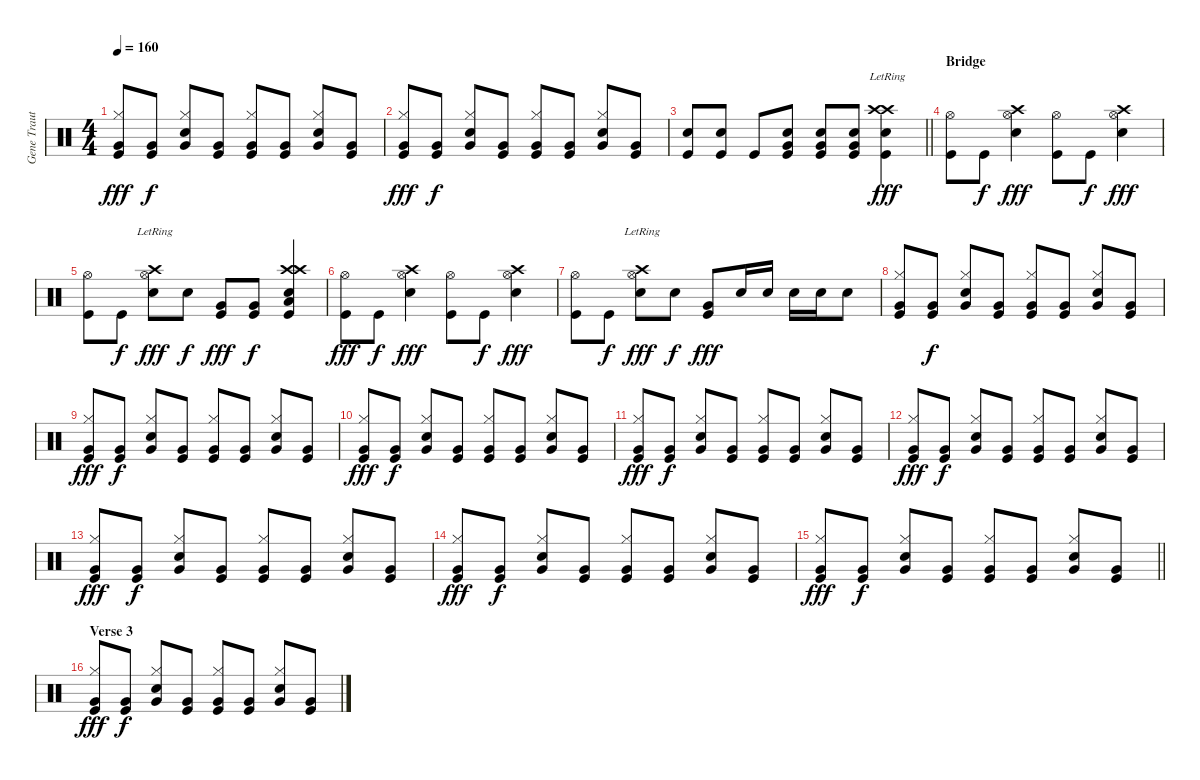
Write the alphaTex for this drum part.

\track ("Gene Trautmann" "Gene Traut") {instrument percussion}
\staff {score}
\articulation defaults
\ts (4 4)
\tempo 160
\clef neutral
\ks c
("Very Low Tom (hit)" "Hi-Hat (closed)" "Kick (hit)").8{dy fff} ("Very Low Tom (hit)" "Kick (hit)").8{dy f} ("Very Low Tom (hit)" "Hi-Hat (closed)" "Snare (hit) 2").8 ("Very Low Tom (hit)" "Kick (hit)").8 ("Very Low Tom (hit)" "Hi-Hat (closed)" "Kick (hit)").8 ("Very Low Tom (hit)" "Kick (hit)").8 ("Very Low Tom (hit)" "Hi-Hat (closed)" "Snare (hit) 2").8 ("Very Low Tom (hit)" "Kick (hit)").8 |
("Very Low Tom (hit)" "Hi-Hat (closed)" "Kick (hit)").8{dy fff} ("Very Low Tom (hit)" "Kick (hit)").8{dy f} ("Very Low Tom (hit)" "Hi-Hat (closed)" "Snare (hit) 2").8 ("Very Low Tom (hit)" "Kick (hit)").8 ("Very Low Tom (hit)" "Hi-Hat (closed)" "Kick (hit)").8 ("Very Low Tom (hit)" "Kick (hit)").8 ("Very Low Tom (hit)" "Hi-Hat (closed)" "Snare (hit) 2").8 ("Very Low Tom (hit)" "Kick (hit)").8 |
\barLineRight lightlight
("Snare (hit) 2" "Kick (hit)").8 ("Snare (hit) 2" "Kick (hit)").8 "Kick (hit)".8 ("Very Low Tom (hit)" "Snare (hit) 2" "Kick (hit)").8 ("Very Low Tom (hit)" "Snare (hit) 2" "Kick (hit)").8 ("Very Low Tom (hit)" "Snare (hit) 2" "Kick (hit)").8 ("Crash high (hit)"{lr} "Crash high (hit)"{lr} "Snare (hit) 2" "Kick (hit)").4{dy fff} |
\section ("" "Bridge")
("Hi-Hat (open)" "Kick (hit)").8 "Kick (hit)".8{dy f} ("Crash high (hit)" "Hi-Hat (open)" "Snare (hit) 2").4{dy fff} ("Hi-Hat (open)" "Kick (hit)").8 "Kick (hit)".8{dy f} ("Crash high (hit)" "Hi-Hat (open)" "Snare (hit) 2").4{dy fff} |
("Hi-Hat (open)" "Kick (hit)").8 "Kick (hit)".8{dy f} ("Crash high (hit)" "Hi-Hat (open)"{lr} "Snare (hit) 2").8{dy fff} "Snare (hit) 2".8{dy f} ("Very Low Tom (hit)" "Kick (hit)").8{dy fff} ("Very Low Tom (hit)" "Kick (hit)").8{dy f} ("Crash high (hit)" "Crash high (hit)" "Low Tom (hit)" "Snare (hit) 2" "Kick (hit)").4 |
("Hi-Hat (open)" "Kick (hit)").8{dy fff} "Kick (hit)".8{dy f} ("Crash high (hit)" "Hi-Hat (open)" "Snare (hit) 2").4{dy fff} ("Hi-Hat (open)" "Kick (hit)").8 "Kick (hit)".8{dy f} ("Crash high (hit)" "Hi-Hat (open)" "Snare (hit) 2").4{dy fff} |
("Hi-Hat (open)" "Kick (hit)").8 "Kick (hit)".8{dy f} ("Crash high (hit)" "Hi-Hat (open)"{lr} "Snare (hit) 2").8{dy fff} "Snare (hit) 2".8{dy f} ("Very Low Tom (hit)" "Kick (hit)").8{dy fff} "Snare (hit) 2".16 "Snare (hit) 2".16 "Snare (hit) 2".16 "Snare (hit) 2".16 "Snare (hit) 2".8 |
("Very Low Tom (hit)" "Hi-Hat (closed)" "Kick (hit)").8 ("Very Low Tom (hit)" "Kick (hit)").8{dy f} ("Very Low Tom (hit)" "Hi-Hat (closed)" "Snare (hit) 2").8 ("Very Low Tom (hit)" "Kick (hit)").8 ("Very Low Tom (hit)" "Hi-Hat (closed)" "Kick (hit)").8 ("Very Low Tom (hit)" "Kick (hit)").8 ("Very Low Tom (hit)" "Hi-Hat (closed)" "Snare (hit) 2").8 ("Very Low Tom (hit)" "Kick (hit)").8 |
("Very Low Tom (hit)" "Hi-Hat (closed)" "Kick (hit)").8{dy fff} ("Very Low Tom (hit)" "Kick (hit)").8{dy f} ("Very Low Tom (hit)" "Hi-Hat (closed)" "Snare (hit) 2").8 ("Very Low Tom (hit)" "Kick (hit)").8 ("Very Low Tom (hit)" "Hi-Hat (closed)" "Kick (hit)").8 ("Very Low Tom (hit)" "Kick (hit)").8 ("Very Low Tom (hit)" "Hi-Hat (closed)" "Snare (hit) 2").8 ("Very Low Tom (hit)" "Kick (hit)").8 |
("Very Low Tom (hit)" "Hi-Hat (closed)" "Kick (hit)").8{dy fff} ("Very Low Tom (hit)" "Kick (hit)").8{dy f} ("Very Low Tom (hit)" "Hi-Hat (closed)" "Snare (hit) 2").8 ("Very Low Tom (hit)" "Kick (hit)").8 ("Very Low Tom (hit)" "Hi-Hat (closed)" "Kick (hit)").8 ("Very Low Tom (hit)" "Kick (hit)").8 ("Very Low Tom (hit)" "Hi-Hat (closed)" "Snare (hit) 2").8 ("Very Low Tom (hit)" "Kick (hit)").8 |
("Very Low Tom (hit)" "Hi-Hat (closed)" "Kick (hit)").8{dy fff} ("Very Low Tom (hit)" "Kick (hit)").8{dy f} ("Very Low Tom (hit)" "Hi-Hat (closed)" "Snare (hit) 2").8 ("Very Low Tom (hit)" "Kick (hit)").8 ("Very Low Tom (hit)" "Hi-Hat (closed)" "Kick (hit)").8 ("Very Low Tom (hit)" "Kick (hit)").8 ("Very Low Tom (hit)" "Hi-Hat (closed)" "Snare (hit) 2").8 ("Very Low Tom (hit)" "Kick (hit)").8 |
("Very Low Tom (hit)" "Hi-Hat (closed)" "Kick (hit)").8{dy fff} ("Very Low Tom (hit)" "Kick (hit)").8{dy f} ("Very Low Tom (hit)" "Hi-Hat (closed)" "Snare (hit) 2").8 ("Very Low Tom (hit)" "Kick (hit)").8 ("Very Low Tom (hit)" "Hi-Hat (closed)" "Kick (hit)").8 ("Very Low Tom (hit)" "Kick (hit)").8 ("Very Low Tom (hit)" "Hi-Hat (closed)" "Snare (hit) 2").8 ("Very Low Tom (hit)" "Kick (hit)").8 |
("Very Low Tom (hit)" "Hi-Hat (closed)" "Kick (hit)").8{dy fff} ("Very Low Tom (hit)" "Kick (hit)").8{dy f} ("Very Low Tom (hit)" "Hi-Hat (closed)" "Snare (hit) 2").8 ("Very Low Tom (hit)" "Kick (hit)").8 ("Very Low Tom (hit)" "Hi-Hat (closed)" "Kick (hit)").8 ("Very Low Tom (hit)" "Kick (hit)").8 ("Very Low Tom (hit)" "Hi-Hat (closed)" "Snare (hit) 2").8 ("Very Low Tom (hit)" "Kick (hit)").8 |
("Very Low Tom (hit)" "Hi-Hat (closed)" "Kick (hit)").8{dy fff} ("Very Low Tom (hit)" "Kick (hit)").8{dy f} ("Very Low Tom (hit)" "Hi-Hat (closed)" "Snare (hit) 2").8 ("Very Low Tom (hit)" "Kick (hit)").8 ("Very Low Tom (hit)" "Hi-Hat (closed)" "Kick (hit)").8 ("Very Low Tom (hit)" "Kick (hit)").8 ("Very Low Tom (hit)" "Hi-Hat (closed)" "Snare (hit) 2").8 ("Very Low Tom (hit)" "Kick (hit)").8 |
\barLineRight lightlight
("Very Low Tom (hit)" "Hi-Hat (closed)" "Kick (hit)").8{dy fff} ("Very Low Tom (hit)" "Kick (hit)").8{dy f} ("Very Low Tom (hit)" "Hi-Hat (closed)" "Snare (hit) 2").8 ("Very Low Tom (hit)" "Kick (hit)").8 ("Very Low Tom (hit)" "Hi-Hat (closed)" "Kick (hit)").8 ("Very Low Tom (hit)" "Kick (hit)").8 ("Very Low Tom (hit)" "Hi-Hat (closed)" "Snare (hit) 2").8 ("Very Low Tom (hit)" "Kick (hit)").8 |
\section ("" "Verse 3")
("Very Low Tom (hit)" "Hi-Hat (closed)" "Kick (hit)").8{dy fff} ("Very Low Tom (hit)" "Kick (hit)").8{dy f} ("Very Low Tom (hit)" "Hi-Hat (closed)" "Snare (hit) 2").8 ("Very Low Tom (hit)" "Kick (hit)").8 ("Very Low Tom (hit)" "Hi-Hat (closed)" "Kick (hit)").8 ("Very Low Tom (hit)" "Kick (hit)").8 ("Very Low Tom (hit)" "Hi-Hat (closed)" "Snare (hit) 2").8 ("Very Low Tom (hit)" "Kick (hit)").8
